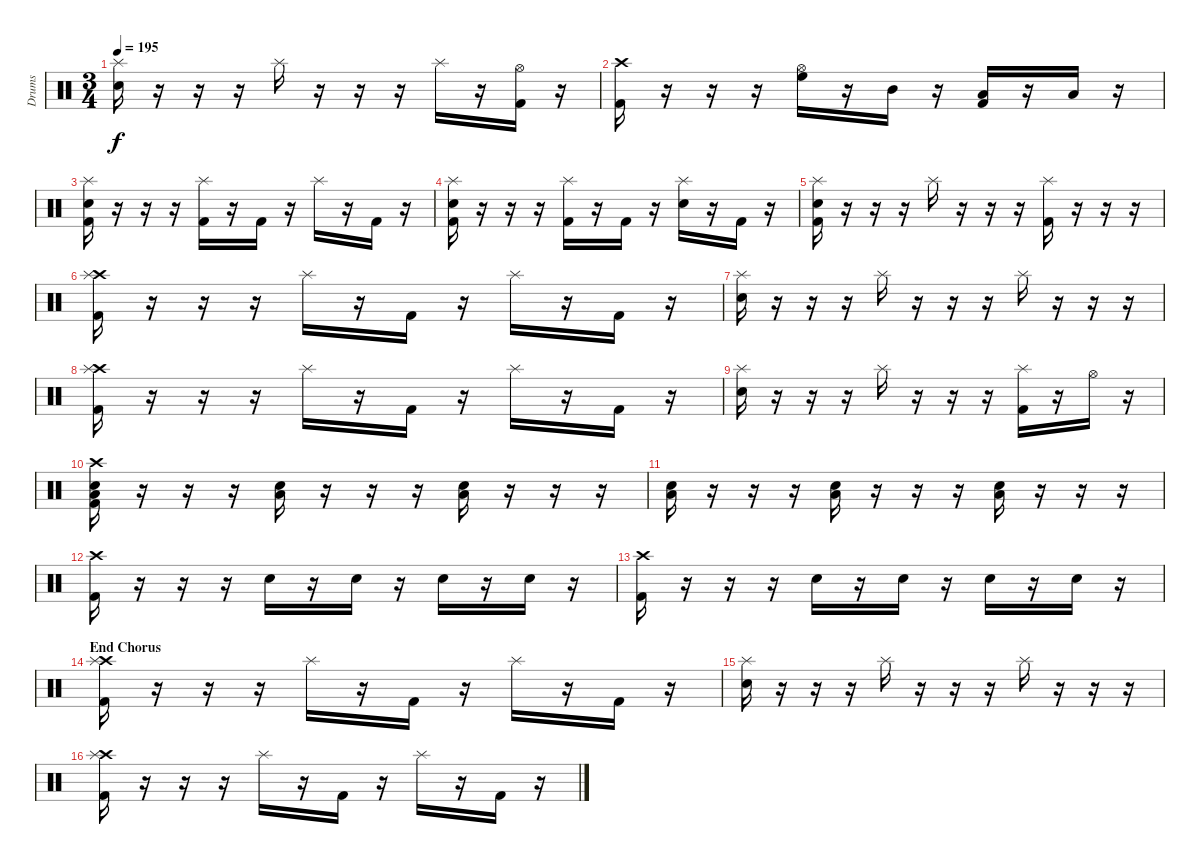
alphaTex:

\track ("Drums" "Drums") {instrument percussion}
\staff {score}
\articulation defaults
\ts (3 4)
\tempo 195
\clef neutral
\ks c
("Splash (hit)" "Snare (hit) 2").16{dy f} r.16 r.16 r.16 "Splash (hit)".16 r.16 r.16 r.16 "Splash (hit)".16 r.16 ("Hi-Hat (open)" "Kick (hit) 2").16 r.16 |
("Crash high (hit)" "Kick (hit) 2").16 r.16 r.16 r.16 ("Hi-Hat (open)" "High Floor Tom (hit)").16 r.16 "Mid Tom (hit)".16 r.16 ("Low Tom (hit)" "Kick (hit) 2").16 r.16 "Low Tom (hit)".16 r.16 |
("Splash (hit)" "Snare (hit) 2" "Kick (hit) 2").16 r.16 r.16 r.16 ("Splash (hit)" "Kick (hit) 2").16 r.16 "Kick (hit) 2".16 r.16 "Splash (hit)".16 r.16 "Kick (hit) 2".16 r.16 |
("Splash (hit)" "Snare (hit) 2" "Kick (hit) 2").16 r.16 r.16 r.16 ("Splash (hit)" "Kick (hit) 2").16 r.16 "Kick (hit) 2".16 r.16 ("Splash (hit)" "Snare (hit) 2").16 r.16 "Kick (hit) 2".16 r.16 |
("Splash (hit)" "Snare (hit) 2" "Kick (hit) 2").16 r.16 r.16 r.16 "Splash (hit)".16 r.16 r.16 r.16 ("Splash (hit)" "Kick (hit) 2").16 r.16 r.16 r.16 |
("Crash high (hit)" "Splash (hit)" "Kick (hit) 2").16 r.16 r.16 r.16 "Splash (hit)".16 r.16 "Kick (hit) 2".16 r.16 "Splash (hit)".16 r.16 "Kick (hit) 2".16 r.16 |
("Splash (hit)" "Snare (hit) 2").16 r.16 r.16 r.16 "Splash (hit)".16 r.16 r.16 r.16 "Splash (hit)".16 r.16 r.16 r.16 |
("Crash high (hit)" "Splash (hit)" "Kick (hit) 2").16 r.16 r.16 r.16 "Splash (hit)".16 r.16 "Kick (hit) 2".16 r.16 "Splash (hit)".16 r.16 "Kick (hit) 2".16 r.16 |
("Splash (hit)" "Snare (hit) 2").16 r.16 r.16 r.16 "Splash (hit)".16 r.16 r.16 r.16 ("Splash (hit)" "Kick (hit) 2").16 r.16 "Hi-Hat (open)".16 r.16 |
("Crash high (hit)" "Low Tom (hit)" "Snare (hit) 2" "Kick (hit) 2").16 r.16 r.16 r.16 ("Low Tom (hit)" "Snare (hit) 2").16 r.16 r.16 r.16 ("Low Tom (hit)" "Snare (hit) 2").16 r.16 r.16 r.16 |
("Low Tom (hit)" "Snare (hit) 2").16 r.16 r.16 r.16 ("Low Tom (hit)" "Snare (hit) 2").16 r.16 r.16 r.16 ("Low Tom (hit)" "Snare (hit) 2").16 r.16 r.16 r.16 |
("Crash high (hit)" "Kick (hit) 2").16 r.16 r.16 r.16 "Snare (hit) 2".16 r.16 "Snare (hit) 2".16 r.16 "Snare (hit) 2".16 r.16 "Snare (hit) 2".16 r.16 |
("Crash high (hit)" "Kick (hit) 2").16 r.16 r.16 r.16 "Snare (hit) 2".16 r.16 "Snare (hit) 2".16 r.16 "Snare (hit) 2".16 r.16 "Snare (hit) 2".16 r.16 |
\section ("" "End Chorus")
("Crash high (hit)" "Splash (hit)" "Kick (hit) 2").16 r.16 r.16 r.16 "Splash (hit)".16 r.16 "Kick (hit) 2".16 r.16 "Splash (hit)".16 r.16 "Kick (hit) 2".16 r.16 |
("Splash (hit)" "Snare (hit) 2").16 r.16 r.16 r.16 "Splash (hit)".16 r.16 r.16 r.16 "Splash (hit)".16 r.16 r.16 r.16 |
("Crash high (hit)" "Splash (hit)" "Kick (hit) 2").16 r.16 r.16 r.16 "Splash (hit)".16 r.16 "Kick (hit) 2".16 r.16 "Splash (hit)".16 r.16 "Kick (hit) 2".16 r.16
